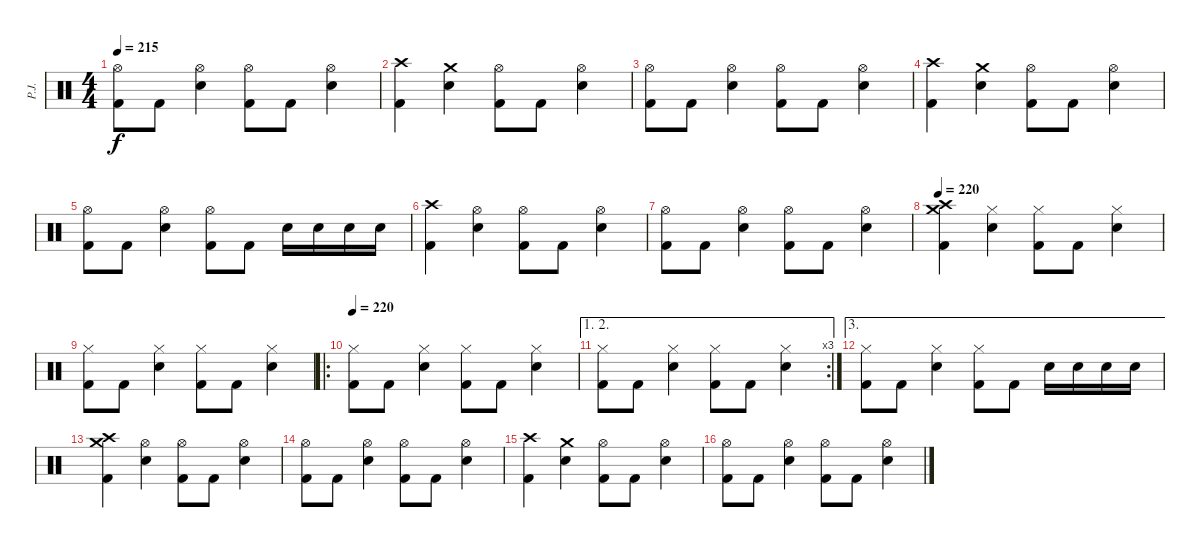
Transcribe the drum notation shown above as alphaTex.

\track ("P.J." "P.J.") {instrument percussion}
\staff {score}
\articulation defaults
\ts (4 4)
\tempo 215
\clef neutral
\ks c
("Hi-Hat (open)" "Kick (hit) 2").8{dy f} "Kick (hit) 2".8 ("Hi-Hat (open)" "Electric Snare (hit)").4 ("Hi-Hat (open)" "Kick (hit) 2").8 "Kick (hit) 2".8 ("Hi-Hat (open)" "Electric Snare (hit)").4 |
("Crash high (hit)" "Kick (hit) 2").4 ("Crash medium (hit)" "Electric Snare (hit)").4 ("Hi-Hat (open)" "Kick (hit) 2").8 "Kick (hit) 2".8 ("Hi-Hat (open)" "Electric Snare (hit)").4 |
("Hi-Hat (open)" "Kick (hit) 2").8 "Kick (hit) 2".8 ("Hi-Hat (open)" "Electric Snare (hit)").4 ("Hi-Hat (open)" "Kick (hit) 2").8 "Kick (hit) 2".8 ("Hi-Hat (open)" "Electric Snare (hit)").4 |
("Crash high (hit)" "Kick (hit) 2").4 ("Crash medium (hit)" "Electric Snare (hit)").4 ("Hi-Hat (open)" "Kick (hit) 2").8 "Kick (hit) 2".8 ("Hi-Hat (open)" "Electric Snare (hit)").4 |
("Hi-Hat (open)" "Kick (hit) 2").8 "Kick (hit) 2".8 ("Hi-Hat (open)" "Electric Snare (hit)").4 ("Hi-Hat (open)" "Kick (hit) 2").8 "Kick (hit) 2".8 "Electric Snare (hit)".16 "Electric Snare (hit)".16 "Electric Snare (hit)".16 "Electric Snare (hit)".16 |
("Crash high (hit)" "Kick (hit) 2").4 ("Hi-Hat (open)" "Electric Snare (hit)").4 ("Hi-Hat (open)" "Kick (hit) 2").8 "Kick (hit) 2".8 ("Hi-Hat (open)" "Electric Snare (hit)").4 |
("Hi-Hat (open)" "Kick (hit) 2").8 "Kick (hit) 2".8 ("Hi-Hat (open)" "Electric Snare (hit)").4 ("Hi-Hat (open)" "Kick (hit) 2").8 "Kick (hit) 2".8 ("Hi-Hat (open)" "Electric Snare (hit)").4 |
\tempo 220
("Crash high (hit)" "Crash medium (hit)" "Kick (hit) 2").4 ("Hi-Hat (closed)" "Electric Snare (hit)").4 ("Hi-Hat (closed)" "Kick (hit) 2").8 "Kick (hit) 2".8 ("Hi-Hat (closed)" "Electric Snare (hit)").4 |
("Hi-Hat (closed)" "Kick (hit) 2").8 "Kick (hit) 2".8 ("Hi-Hat (closed)" "Electric Snare (hit)").4 ("Hi-Hat (closed)" "Kick (hit) 2").8 "Kick (hit) 2".8 ("Hi-Hat (closed)" "Electric Snare (hit)").4 |
\ro
\tempo 220
("Hi-Hat (closed)" "Kick (hit) 2").8 "Kick (hit) 2".8 ("Hi-Hat (closed)" "Electric Snare (hit)").4 ("Hi-Hat (closed)" "Kick (hit) 2").8 "Kick (hit) 2".8 ("Hi-Hat (closed)" "Electric Snare (hit)").4 |
\ae (1 2)
\rc 3
("Hi-Hat (closed)" "Kick (hit) 2").8 "Kick (hit) 2".8 ("Hi-Hat (closed)" "Electric Snare (hit)").4 ("Hi-Hat (closed)" "Kick (hit) 2").8 "Kick (hit) 2".8 ("Hi-Hat (closed)" "Electric Snare (hit)").4 |
\ae 3
("Hi-Hat (closed)" "Kick (hit) 2").8 "Kick (hit) 2".8 ("Hi-Hat (closed)" "Electric Snare (hit)").4 ("Hi-Hat (closed)" "Kick (hit) 2").8 "Kick (hit) 2".8 "Electric Snare (hit)".16 "Electric Snare (hit)".16 "Electric Snare (hit)".16 "Electric Snare (hit)".16 |
("Crash high (hit)" "Crash medium (hit)" "Kick (hit) 2").4 ("Hi-Hat (open)" "Electric Snare (hit)").4 ("Hi-Hat (open)" "Kick (hit) 2").8 "Kick (hit) 2".8 ("Hi-Hat (open)" "Electric Snare (hit)").4 |
("Hi-Hat (open)" "Kick (hit) 2").8 "Kick (hit) 2".8 ("Hi-Hat (open)" "Electric Snare (hit)").4 ("Hi-Hat (open)" "Kick (hit) 2").8 "Kick (hit) 2".8 ("Hi-Hat (open)" "Electric Snare (hit)").4 |
("Crash high (hit)" "Kick (hit) 2").4 ("Crash medium (hit)" "Electric Snare (hit)").4 ("Hi-Hat (open)" "Kick (hit) 2").8 "Kick (hit) 2".8 ("Hi-Hat (open)" "Electric Snare (hit)").4 |
("Hi-Hat (open)" "Kick (hit) 2").8 "Kick (hit) 2".8 ("Hi-Hat (open)" "Electric Snare (hit)").4 ("Hi-Hat (open)" "Kick (hit) 2").8 "Kick (hit) 2".8 ("Hi-Hat (open)" "Electric Snare (hit)").4
